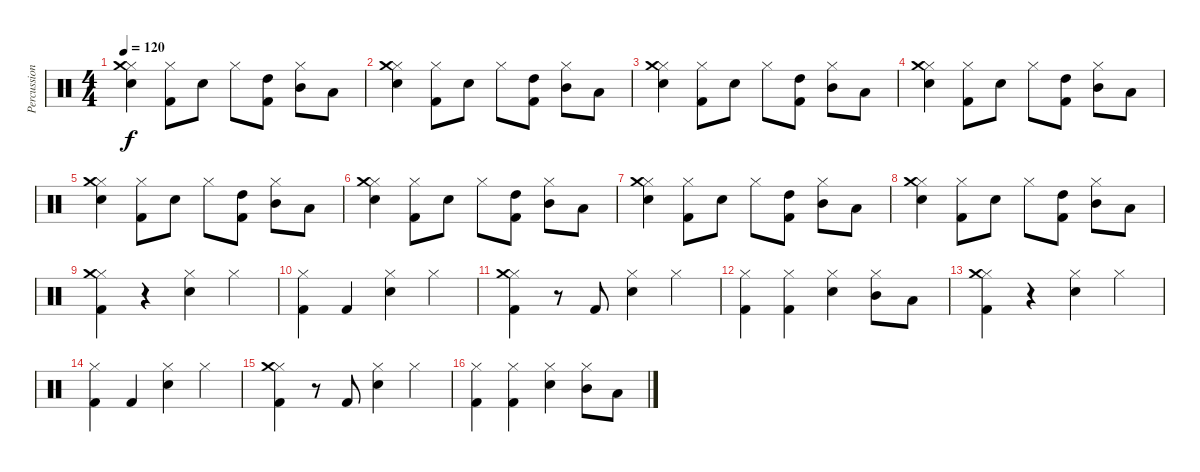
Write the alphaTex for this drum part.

\track ("Percussions" "Percussion") {instrument percussion}
\staff {score}
\articulation defaults
\ts (4 4)
\tempo 120
\clef neutral
\ks c
("Hi-Hat (closed)" "Crash medium (hit)" "Electric Snare (hit)").4{dy f} ("Hi-Hat (closed)" "Kick (hit) 2").8 "Electric Snare (hit)".8 "Hi-Hat (closed)".8 ("High Tom (hit)" "Kick (hit) 2").8 ("Hi-Hat (closed)" "Mid Tom (hit)").8 "Low Tom (hit)".8 |
("Hi-Hat (closed)" "Crash medium (hit)" "Electric Snare (hit)").4 ("Hi-Hat (closed)" "Kick (hit) 2").8 "Electric Snare (hit)".8 "Hi-Hat (closed)".8 ("High Tom (hit)" "Kick (hit) 2").8 ("Hi-Hat (closed)" "Mid Tom (hit)").8 "Low Tom (hit)".8 |
("Hi-Hat (closed)" "Crash medium (hit)" "Electric Snare (hit)").4 ("Hi-Hat (closed)" "Kick (hit) 2").8 "Electric Snare (hit)".8 "Hi-Hat (closed)".8 ("High Tom (hit)" "Kick (hit) 2").8 ("Hi-Hat (closed)" "Mid Tom (hit)").8 "Low Tom (hit)".8 |
("Hi-Hat (closed)" "Crash medium (hit)" "Electric Snare (hit)").4 ("Hi-Hat (closed)" "Kick (hit) 2").8 "Electric Snare (hit)".8 "Hi-Hat (closed)".8 ("High Tom (hit)" "Kick (hit) 2").8 ("Hi-Hat (closed)" "Mid Tom (hit)").8 "Low Tom (hit)".8 |
("Hi-Hat (closed)" "Crash medium (hit)" "Electric Snare (hit)").4 ("Hi-Hat (closed)" "Kick (hit) 2").8 "Electric Snare (hit)".8 "Hi-Hat (closed)".8 ("High Tom (hit)" "Kick (hit) 2").8 ("Hi-Hat (closed)" "Mid Tom (hit)").8 "Low Tom (hit)".8 |
("Hi-Hat (closed)" "Crash medium (hit)" "Electric Snare (hit)").4 ("Hi-Hat (closed)" "Kick (hit) 2").8 "Electric Snare (hit)".8 "Hi-Hat (closed)".8 ("High Tom (hit)" "Kick (hit) 2").8 ("Hi-Hat (closed)" "Mid Tom (hit)").8 "Low Tom (hit)".8 |
("Hi-Hat (closed)" "Crash medium (hit)" "Electric Snare (hit)").4 ("Hi-Hat (closed)" "Kick (hit) 2").8 "Electric Snare (hit)".8 "Hi-Hat (closed)".8 ("High Tom (hit)" "Kick (hit) 2").8 ("Hi-Hat (closed)" "Mid Tom (hit)").8 "Low Tom (hit)".8 |
("Hi-Hat (closed)" "Crash medium (hit)" "Electric Snare (hit)").4 ("Hi-Hat (closed)" "Kick (hit) 2").8 "Electric Snare (hit)".8 "Hi-Hat (closed)".8 ("High Tom (hit)" "Kick (hit) 2").8 ("Hi-Hat (closed)" "Mid Tom (hit)").8 "Low Tom (hit)".8 |
("Hi-Hat (closed)" "Crash medium (hit)" "Kick (hit) 2").4 r.4 ("Hi-Hat (closed)" "Electric Snare (hit)").4 "Hi-Hat (closed)".4 |
("Hi-Hat (closed)" "Kick (hit) 2").4 "Kick (hit) 2".4 ("Hi-Hat (closed)" "Electric Snare (hit)").4 "Hi-Hat (closed)".4 |
("Hi-Hat (closed)" "Crash medium (hit)" "Kick (hit) 2").4 r.8 "Kick (hit) 2".8 ("Hi-Hat (closed)" "Electric Snare (hit)").4 "Hi-Hat (closed)".4 |
("Hi-Hat (closed)" "Kick (hit) 2").4 ("Hi-Hat (closed)" "Kick (hit) 2").4 ("Hi-Hat (closed)" "Electric Snare (hit)").4 ("Hi-Hat (closed)" "Mid Tom (hit)").8 "Low Tom (hit)".8 |
("Hi-Hat (closed)" "Crash medium (hit)" "Kick (hit) 2").4 r.4 ("Hi-Hat (closed)" "Electric Snare (hit)").4 "Hi-Hat (closed)".4 |
("Hi-Hat (closed)" "Kick (hit) 2").4 "Kick (hit) 2".4 ("Hi-Hat (closed)" "Electric Snare (hit)").4 "Hi-Hat (closed)".4 |
("Hi-Hat (closed)" "Crash medium (hit)" "Kick (hit) 2").4 r.8 "Kick (hit) 2".8 ("Hi-Hat (closed)" "Electric Snare (hit)").4 "Hi-Hat (closed)".4 |
("Hi-Hat (closed)" "Kick (hit) 2").4 ("Hi-Hat (closed)" "Kick (hit) 2").4 ("Hi-Hat (closed)" "Electric Snare (hit)").4 ("Hi-Hat (closed)" "Mid Tom (hit)").8 "Low Tom (hit)".8
